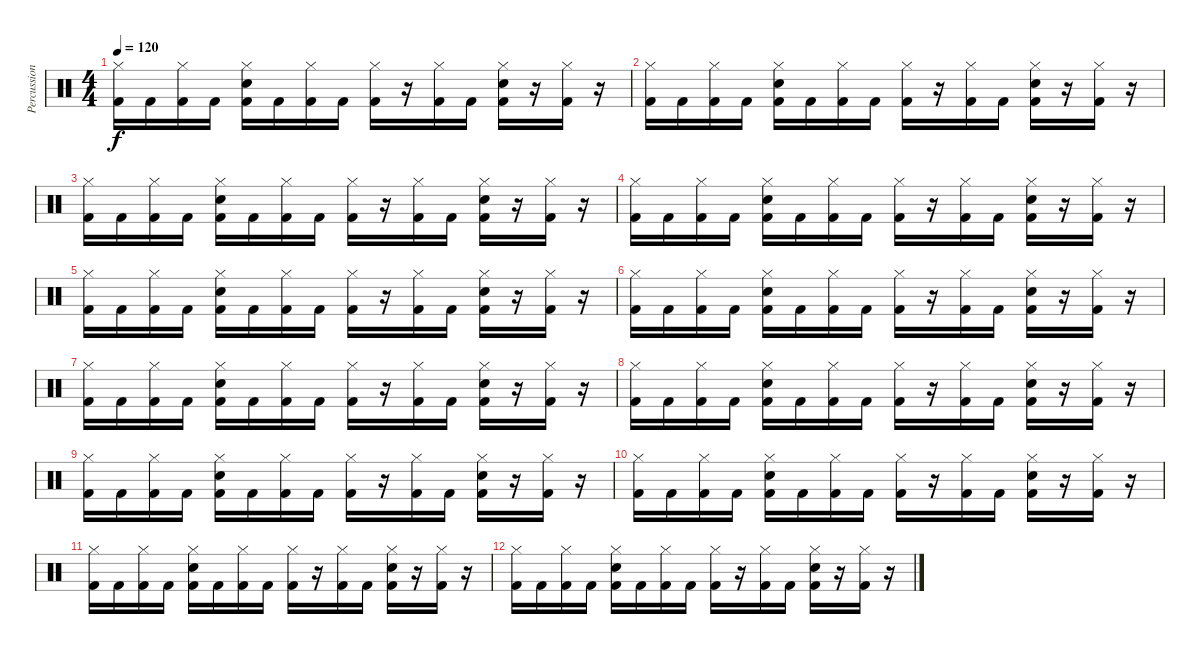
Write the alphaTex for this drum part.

\track ("Percussions" "Percussion") {instrument percussion}
\staff {score}
\articulation defaults
\ts (4 4)
\tempo 120
\clef neutral
\ks c
("Hi-Hat (closed)" "Kick (hit) 2").16{dy f} "Kick (hit) 2".16 ("Hi-Hat (closed)" "Kick (hit) 2").16 "Kick (hit) 2".16 ("Hi-Hat (closed)" "Kick (hit) 2" "Snare (hit) 2").16 "Kick (hit) 2".16 ("Hi-Hat (closed)" "Kick (hit) 2").16 "Kick (hit) 2".16 ("Hi-Hat (closed)" "Kick (hit) 2").16 r.16 ("Hi-Hat (closed)" "Kick (hit) 2").16 "Kick (hit) 2".16 ("Hi-Hat (closed)" "Kick (hit) 2" "Snare (hit) 2").16 r.16 ("Hi-Hat (closed)" "Kick (hit) 2").16 r.16 |
("Hi-Hat (closed)" "Kick (hit) 2").16 "Kick (hit) 2".16 ("Hi-Hat (closed)" "Kick (hit) 2").16 "Kick (hit) 2".16 ("Hi-Hat (closed)" "Kick (hit) 2" "Snare (hit) 2").16 "Kick (hit) 2".16 ("Hi-Hat (closed)" "Kick (hit) 2").16 "Kick (hit) 2".16 ("Hi-Hat (closed)" "Kick (hit) 2").16 r.16 ("Hi-Hat (closed)" "Kick (hit) 2").16 "Kick (hit) 2".16 ("Hi-Hat (closed)" "Kick (hit) 2" "Snare (hit) 2").16 r.16 ("Hi-Hat (closed)" "Kick (hit) 2").16 r.16 |
("Hi-Hat (closed)" "Kick (hit) 2").16 "Kick (hit) 2".16 ("Hi-Hat (closed)" "Kick (hit) 2").16 "Kick (hit) 2".16 ("Hi-Hat (closed)" "Kick (hit) 2" "Snare (hit) 2").16 "Kick (hit) 2".16 ("Hi-Hat (closed)" "Kick (hit) 2").16 "Kick (hit) 2".16 ("Hi-Hat (closed)" "Kick (hit) 2").16 r.16 ("Hi-Hat (closed)" "Kick (hit) 2").16 "Kick (hit) 2".16 ("Hi-Hat (closed)" "Kick (hit) 2" "Snare (hit) 2").16 r.16 ("Hi-Hat (closed)" "Kick (hit) 2").16 r.16 |
("Hi-Hat (closed)" "Kick (hit) 2").16 "Kick (hit) 2".16 ("Hi-Hat (closed)" "Kick (hit) 2").16 "Kick (hit) 2".16 ("Hi-Hat (closed)" "Kick (hit) 2" "Snare (hit) 2").16 "Kick (hit) 2".16 ("Hi-Hat (closed)" "Kick (hit) 2").16 "Kick (hit) 2".16 ("Hi-Hat (closed)" "Kick (hit) 2").16 r.16 ("Hi-Hat (closed)" "Kick (hit) 2").16 "Kick (hit) 2".16 ("Hi-Hat (closed)" "Kick (hit) 2" "Snare (hit) 2").16 r.16 ("Hi-Hat (closed)" "Kick (hit) 2").16 r.16 |
("Hi-Hat (closed)" "Kick (hit) 2").16 "Kick (hit) 2".16 ("Hi-Hat (closed)" "Kick (hit) 2").16 "Kick (hit) 2".16 ("Hi-Hat (closed)" "Kick (hit) 2" "Snare (hit) 2").16 "Kick (hit) 2".16 ("Hi-Hat (closed)" "Kick (hit) 2").16 "Kick (hit) 2".16 ("Hi-Hat (closed)" "Kick (hit) 2").16 r.16 ("Hi-Hat (closed)" "Kick (hit) 2").16 "Kick (hit) 2".16 ("Hi-Hat (closed)" "Kick (hit) 2" "Snare (hit) 2").16 r.16 ("Hi-Hat (closed)" "Kick (hit) 2").16 r.16 |
("Hi-Hat (closed)" "Kick (hit) 2").16 "Kick (hit) 2".16 ("Hi-Hat (closed)" "Kick (hit) 2").16 "Kick (hit) 2".16 ("Hi-Hat (closed)" "Kick (hit) 2" "Snare (hit) 2").16 "Kick (hit) 2".16 ("Hi-Hat (closed)" "Kick (hit) 2").16 "Kick (hit) 2".16 ("Hi-Hat (closed)" "Kick (hit) 2").16 r.16 ("Hi-Hat (closed)" "Kick (hit) 2").16 "Kick (hit) 2".16 ("Hi-Hat (closed)" "Kick (hit) 2" "Snare (hit) 2").16 r.16 ("Hi-Hat (closed)" "Kick (hit) 2").16 r.16 |
("Hi-Hat (closed)" "Kick (hit) 2").16 "Kick (hit) 2".16 ("Hi-Hat (closed)" "Kick (hit) 2").16 "Kick (hit) 2".16 ("Hi-Hat (closed)" "Kick (hit) 2" "Snare (hit) 2").16 "Kick (hit) 2".16 ("Hi-Hat (closed)" "Kick (hit) 2").16 "Kick (hit) 2".16 ("Hi-Hat (closed)" "Kick (hit) 2").16 r.16 ("Hi-Hat (closed)" "Kick (hit) 2").16 "Kick (hit) 2".16 ("Hi-Hat (closed)" "Kick (hit) 2" "Snare (hit) 2").16 r.16 ("Hi-Hat (closed)" "Kick (hit) 2").16 r.16 |
("Hi-Hat (closed)" "Kick (hit) 2").16 "Kick (hit) 2".16 ("Hi-Hat (closed)" "Kick (hit) 2").16 "Kick (hit) 2".16 ("Hi-Hat (closed)" "Kick (hit) 2" "Snare (hit) 2").16 "Kick (hit) 2".16 ("Hi-Hat (closed)" "Kick (hit) 2").16 "Kick (hit) 2".16 ("Hi-Hat (closed)" "Kick (hit) 2").16 r.16 ("Hi-Hat (closed)" "Kick (hit) 2").16 "Kick (hit) 2".16 ("Hi-Hat (closed)" "Kick (hit) 2" "Snare (hit) 2").16 r.16 ("Hi-Hat (closed)" "Kick (hit) 2").16 r.16 |
("Hi-Hat (closed)" "Kick (hit) 2").16 "Kick (hit) 2".16 ("Hi-Hat (closed)" "Kick (hit) 2").16 "Kick (hit) 2".16 ("Hi-Hat (closed)" "Kick (hit) 2" "Snare (hit) 2").16 "Kick (hit) 2".16 ("Hi-Hat (closed)" "Kick (hit) 2").16 "Kick (hit) 2".16 ("Hi-Hat (closed)" "Kick (hit) 2").16 r.16 ("Hi-Hat (closed)" "Kick (hit) 2").16 "Kick (hit) 2".16 ("Hi-Hat (closed)" "Kick (hit) 2" "Snare (hit) 2").16 r.16 ("Hi-Hat (closed)" "Kick (hit) 2").16 r.16 |
("Hi-Hat (closed)" "Kick (hit) 2").16 "Kick (hit) 2".16 ("Hi-Hat (closed)" "Kick (hit) 2").16 "Kick (hit) 2".16 ("Hi-Hat (closed)" "Kick (hit) 2" "Snare (hit) 2").16 "Kick (hit) 2".16 ("Hi-Hat (closed)" "Kick (hit) 2").16 "Kick (hit) 2".16 ("Hi-Hat (closed)" "Kick (hit) 2").16 r.16 ("Hi-Hat (closed)" "Kick (hit) 2").16 "Kick (hit) 2".16 ("Hi-Hat (closed)" "Kick (hit) 2" "Snare (hit) 2").16 r.16 ("Hi-Hat (closed)" "Kick (hit) 2").16 r.16 |
("Hi-Hat (closed)" "Kick (hit) 2").16 "Kick (hit) 2".16 ("Hi-Hat (closed)" "Kick (hit) 2").16 "Kick (hit) 2".16 ("Hi-Hat (closed)" "Kick (hit) 2" "Snare (hit) 2").16 "Kick (hit) 2".16 ("Hi-Hat (closed)" "Kick (hit) 2").16 "Kick (hit) 2".16 ("Hi-Hat (closed)" "Kick (hit) 2").16 r.16 ("Hi-Hat (closed)" "Kick (hit) 2").16 "Kick (hit) 2".16 ("Hi-Hat (closed)" "Kick (hit) 2" "Snare (hit) 2").16 r.16 ("Hi-Hat (closed)" "Kick (hit) 2").16 r.16 |
("Hi-Hat (closed)" "Kick (hit) 2").16 "Kick (hit) 2".16 ("Hi-Hat (closed)" "Kick (hit) 2").16 "Kick (hit) 2".16 ("Hi-Hat (closed)" "Kick (hit) 2" "Snare (hit) 2").16 "Kick (hit) 2".16 ("Hi-Hat (closed)" "Kick (hit) 2").16 "Kick (hit) 2".16 ("Hi-Hat (closed)" "Kick (hit) 2").16 r.16 ("Hi-Hat (closed)" "Kick (hit) 2").16 "Kick (hit) 2".16 ("Hi-Hat (closed)" "Kick (hit) 2" "Snare (hit) 2").16 r.16 ("Hi-Hat (closed)" "Kick (hit) 2").16 r.16
